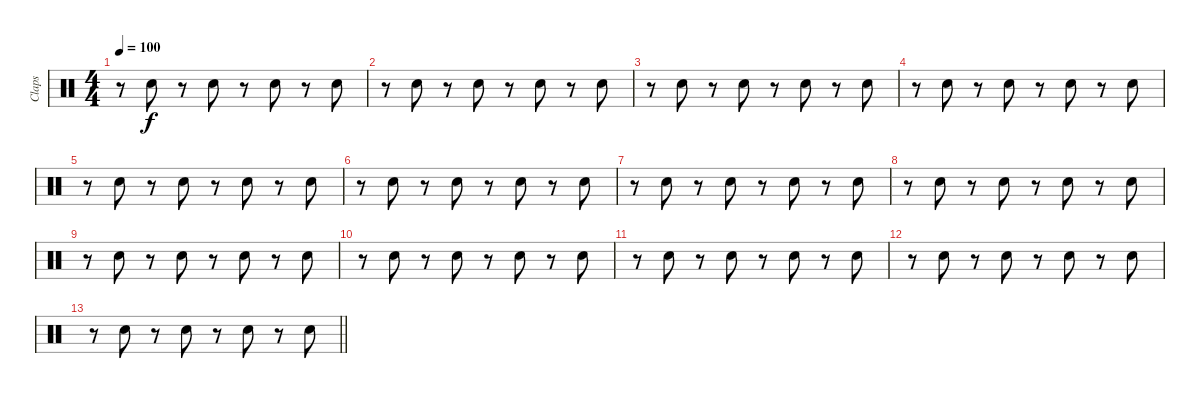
\track ("Claps" "Claps") {instrument percussion}
\staff {score}
\articulation defaults
\ts (4 4)
\tempo 100
\clef neutral
\ks c
r.8{dy f} "Hand Clap (hit)".8 r.8 "Hand Clap (hit)".8 r.8 "Hand Clap (hit)".8 r.8 "Hand Clap (hit)".8 |
r.8 "Hand Clap (hit)".8 r.8 "Hand Clap (hit)".8 r.8 "Hand Clap (hit)".8 r.8 "Hand Clap (hit)".8 |
r.8 "Hand Clap (hit)".8 r.8 "Hand Clap (hit)".8 r.8 "Hand Clap (hit)".8 r.8 "Hand Clap (hit)".8 |
r.8 "Hand Clap (hit)".8 r.8 "Hand Clap (hit)".8 r.8 "Hand Clap (hit)".8 r.8 "Hand Clap (hit)".8 |
r.8 "Hand Clap (hit)".8 r.8 "Hand Clap (hit)".8 r.8 "Hand Clap (hit)".8 r.8 "Hand Clap (hit)".8 |
r.8 "Hand Clap (hit)".8 r.8 "Hand Clap (hit)".8 r.8 "Hand Clap (hit)".8 r.8 "Hand Clap (hit)".8 |
r.8 "Hand Clap (hit)".8 r.8 "Hand Clap (hit)".8 r.8 "Hand Clap (hit)".8 r.8 "Hand Clap (hit)".8 |
r.8 "Hand Clap (hit)".8 r.8 "Hand Clap (hit)".8 r.8 "Hand Clap (hit)".8 r.8 "Hand Clap (hit)".8 |
r.8 "Hand Clap (hit)".8 r.8 "Hand Clap (hit)".8 r.8 "Hand Clap (hit)".8 r.8 "Hand Clap (hit)".8 |
r.8 "Hand Clap (hit)".8 r.8 "Hand Clap (hit)".8 r.8 "Hand Clap (hit)".8 r.8 "Hand Clap (hit)".8 |
r.8 "Hand Clap (hit)".8 r.8 "Hand Clap (hit)".8 r.8 "Hand Clap (hit)".8 r.8 "Hand Clap (hit)".8 |
r.8 "Hand Clap (hit)".8 r.8 "Hand Clap (hit)".8 r.8 "Hand Clap (hit)".8 r.8 "Hand Clap (hit)".8 |
\barLineRight lightlight
r.8 "Hand Clap (hit)".8 r.8 "Hand Clap (hit)".8 r.8 "Hand Clap (hit)".8 r.8 "Hand Clap (hit)".8
